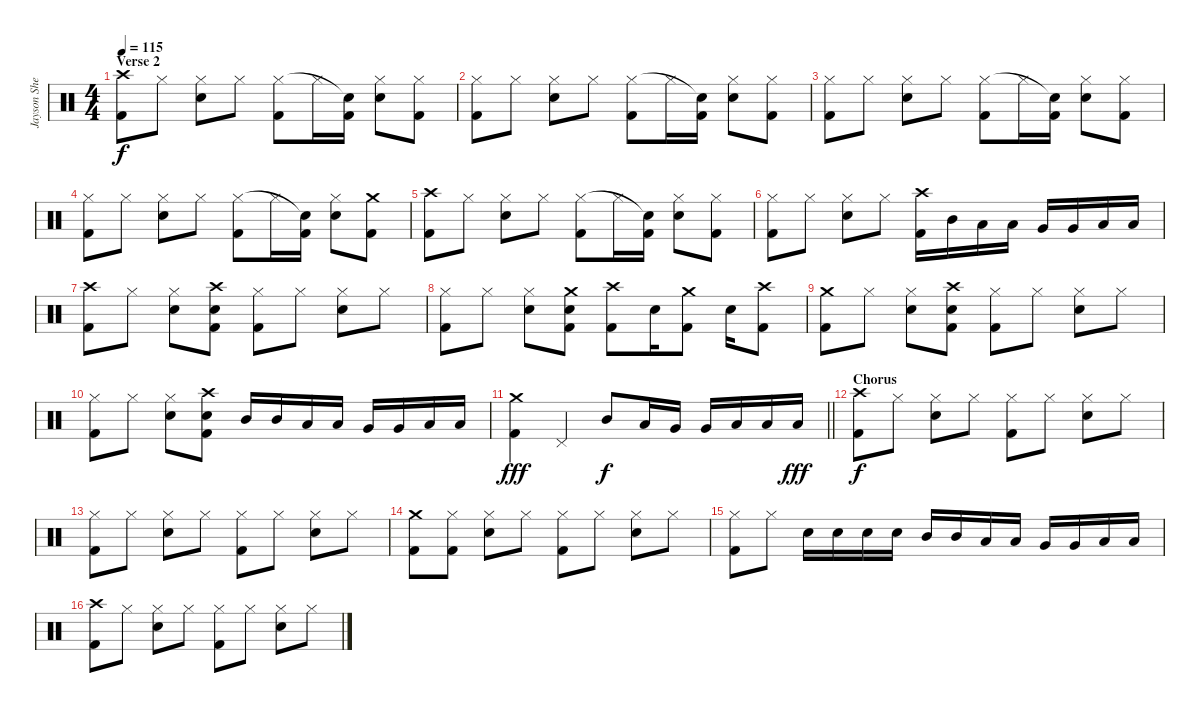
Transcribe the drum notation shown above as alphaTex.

\track ("Jayson Sherlock" "Jayson She") {instrument percussion}
\staff {score}
\articulation defaults
\ts (4 4)
\section ("" "Verse 2")
\tempo 115
\clef neutral
\ks c
("Kick (hit) 2" "Crash high (hit)").8{dy f} "Hi-Hat (closed)".8 ("Hi-Hat (closed)" "Snare (hit) 2").8 "Hi-Hat (closed)".8 ("Kick (hit) 2" "Hi-Hat (closed)").8 "Hi-Hat (closed)".16 ("Kick (hit) 2" "Snare (hit)"{t}).16 ("Hi-Hat (closed)" "Snare (hit) 2").8 ("Kick (hit) 2" "Hi-Hat (closed)").8 |
("Kick (hit) 2" "Hi-Hat (closed)").8 "Hi-Hat (closed)".8 ("Hi-Hat (closed)" "Snare (hit) 2").8 "Hi-Hat (closed)".8 ("Kick (hit) 2" "Hi-Hat (closed)").8 "Hi-Hat (closed)".16 ("Kick (hit) 2" "Snare (hit)"{t}).16 ("Hi-Hat (closed)" "Snare (hit) 2").8 ("Kick (hit) 2" "Hi-Hat (closed)").8 |
("Kick (hit) 2" "Hi-Hat (closed)").8 "Hi-Hat (closed)".8 ("Hi-Hat (closed)" "Snare (hit) 2").8 "Hi-Hat (closed)".8 ("Kick (hit) 2" "Hi-Hat (closed)").8 "Hi-Hat (closed)".16 ("Kick (hit) 2" "Snare (hit)"{t}).16 ("Hi-Hat (closed)" "Snare (hit) 2").8 ("Kick (hit) 2" "Hi-Hat (closed)").8 |
("Kick (hit) 2" "Hi-Hat (closed)").8 "Hi-Hat (closed)".8 ("Hi-Hat (closed)" "Snare (hit) 2").8 "Hi-Hat (closed)".8 ("Kick (hit) 2" "Hi-Hat (closed)").8 "Hi-Hat (closed)".16 ("Kick (hit) 2" "Snare (hit)"{t}).16 ("Hi-Hat (closed)" "Snare (hit) 2").8 ("Kick (hit) 2" "Crash medium (hit)").8 |
("Kick (hit) 2" "Crash high (hit)").8 "Hi-Hat (closed)".8 ("Hi-Hat (closed)" "Snare (hit) 2").8 "Hi-Hat (closed)".8 ("Kick (hit) 2" "Hi-Hat (closed)").8 "Hi-Hat (closed)".16 ("Kick (hit) 2" "Snare (hit)"{t}).16 ("Hi-Hat (closed)" "Snare (hit) 2").8 ("Kick (hit) 2" "Hi-Hat (closed)").8 |
("Kick (hit) 2" "Hi-Hat (closed)").8 "Hi-Hat (closed)".8 ("Hi-Hat (closed)" "Snare (hit) 2").8 "Hi-Hat (closed)".8 ("Kick (hit) 2" "Crash high (hit)").16 "Mid Tom (hit)".16 "Low Tom (hit)".16 "Low Tom (hit)".16 "Very Low Tom (hit)".16 "Very Low Tom (hit)".16 "Low Floor Tom (hit)".16 "Low Floor Tom (hit)".16 |
("Kick (hit) 2" "Crash high (hit)").8 "Hi-Hat (closed)".8 ("Hi-Hat (closed)" "Snare (hit) 2").8 ("Kick (hit) 2" "Snare (hit) 2" "Crash high (hit)").8 ("Kick (hit) 2" "Hi-Hat (closed)").8 "Hi-Hat (closed)".8 ("Hi-Hat (closed)" "Snare (hit) 2").8 "Hi-Hat (closed)".8 |
("Kick (hit) 2" "Hi-Hat (closed)").8 "Hi-Hat (closed)".8 ("Hi-Hat (closed)" "Snare (hit) 2").8 ("Kick (hit) 2" "Snare (hit) 2" "Crash medium (hit)").8 ("Kick (hit) 2" "Crash high (hit)").8 "Snare (hit) 2".16 ("Kick (hit) 2" "Crash medium (hit)").8 "Snare (hit) 2".16 ("Kick (hit) 2" "Crash high (hit)").8 |
("Kick (hit) 2" "Crash medium (hit)").8 "Hi-Hat (closed)".8 ("Hi-Hat (closed)" "Snare (hit) 2").8 ("Kick (hit) 2" "Snare (hit) 2" "Crash high (hit)").8 ("Kick (hit) 2" "Hi-Hat (closed)").8 "Hi-Hat (closed)".8 ("Hi-Hat (closed)" "Snare (hit) 2").8 "Hi-Hat (closed)".8 |
("Kick (hit) 2" "Hi-Hat (closed)").8 "Hi-Hat (closed)".8 ("Hi-Hat (closed)" "Snare (hit) 2").8 ("Kick (hit) 2" "Snare (hit) 2" "Crash high (hit)").8 "Mid Tom (hit)".16 "Mid Tom (hit)".16 "Low Tom (hit)".16 "Low Tom (hit)".16 "Very Low Tom (hit)".16 "Very Low Tom (hit)".16 "Low Floor Tom (hit)".16 "Low Floor Tom (hit)".16 |
\barLineRight lightlight
("Kick (hit) 2" "Crash medium (hit)").4{dy fff} "Pedal Hi-Hat (hit)".4 "Mid Tom (hit)".8{dy f} "Low Tom (hit)".16 "Very Low Tom (hit)".16 "Very Low Tom (hit)".16 "Low Floor Tom (hit)".16 "Low Floor Tom (hit)".16 "Low Floor Tom (hit)".16{dy fff} |
\section ("" "Chorus")
("Kick (hit) 2" "Crash high (hit)").8{dy f} "Hi-Hat (closed)".8 ("Hi-Hat (closed)" "Snare (hit) 2").8 "Hi-Hat (closed)".8 ("Kick (hit) 2" "Hi-Hat (closed)").8 "Hi-Hat (closed)".8 ("Hi-Hat (closed)" "Snare (hit) 2").8 "Hi-Hat (closed)".8 |
("Kick (hit) 2" "Hi-Hat (closed)").8 "Hi-Hat (closed)".8 ("Hi-Hat (closed)" "Snare (hit) 2").8 "Hi-Hat (closed)".8 ("Kick (hit) 2" "Hi-Hat (closed)").8 "Hi-Hat (closed)".8 ("Hi-Hat (closed)" "Snare (hit) 2").8 "Hi-Hat (closed)".8 |
("Kick (hit) 2" "Crash medium (hit)").8 ("Kick (hit) 2" "Hi-Hat (closed)").8 ("Hi-Hat (closed)" "Snare (hit) 2").8 "Hi-Hat (closed)".8 ("Kick (hit) 2" "Hi-Hat (closed)").8 "Hi-Hat (closed)".8 ("Hi-Hat (closed)" "Snare (hit) 2").8 "Hi-Hat (closed)".8 |
("Kick (hit) 2" "Hi-Hat (closed)").8 "Hi-Hat (closed)".8 "Snare (hit) 2".16 "Snare (hit) 2".16 "Snare (hit) 2".16 "Snare (hit) 2".16 "Mid Tom (hit)".16 "Mid Tom (hit)".16 "Low Tom (hit)".16 "Low Tom (hit)".16 "Very Low Tom (hit)".16 "Very Low Tom (hit)".16 "Low Floor Tom (hit)".16 "Low Floor Tom (hit)".16 |
("Kick (hit) 2" "Crash high (hit)").8 "Hi-Hat (closed)".8 ("Hi-Hat (closed)" "Snare (hit) 2").8 "Hi-Hat (closed)".8 ("Kick (hit) 2" "Hi-Hat (closed)").8 "Hi-Hat (closed)".8 ("Hi-Hat (closed)" "Snare (hit) 2").8 "Hi-Hat (closed)".8
